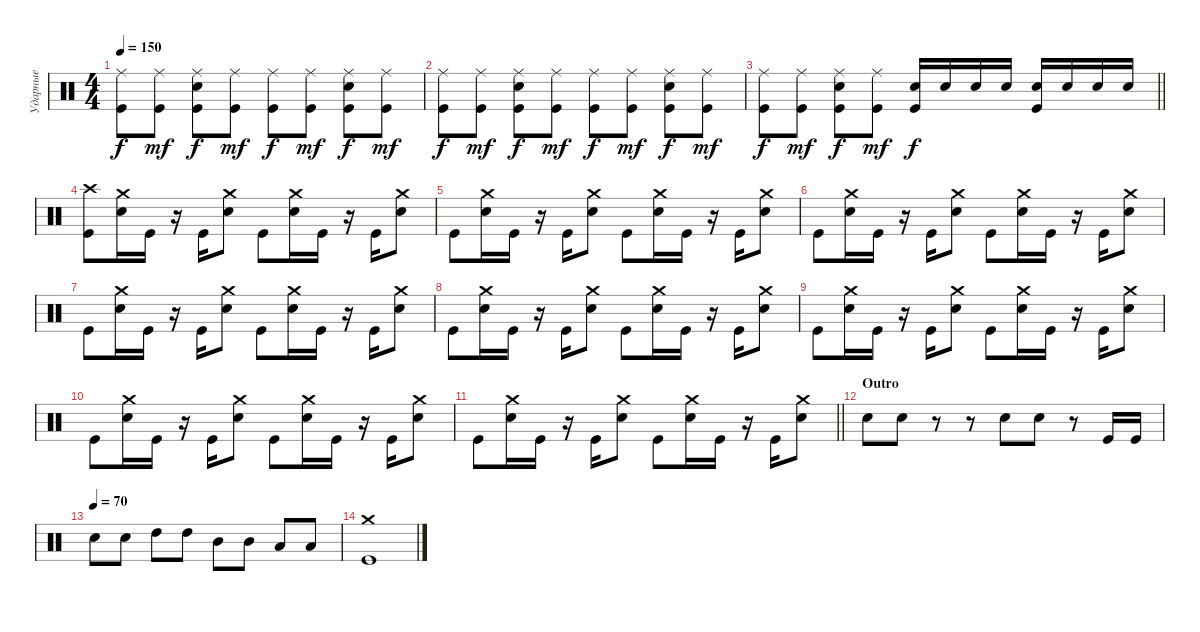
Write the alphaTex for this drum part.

\track ("Ударные" "Ударные") {instrument percussion}
\staff {score}
\articulation defaults
\ts (4 4)
\tempo 150
\clef neutral
\ks c
("Kick (hit)" "Ride (middle)").8{dy f} ("Kick (hit)" "Ride (middle)").8{dy mf} ("Electric Snare (hit)" "Kick (hit)" "Ride (middle)").8{dy f} ("Kick (hit)" "Ride (middle)").8{dy mf} ("Kick (hit)" "Ride (middle)").8{dy f} ("Kick (hit)" "Ride (middle)").8{dy mf} ("Electric Snare (hit)" "Kick (hit)" "Ride (middle)").8{dy f} ("Kick (hit)" "Ride (middle)").8{dy mf} |
("Kick (hit)" "Ride (middle)").8{dy f} ("Kick (hit)" "Ride (middle)").8{dy mf} ("Electric Snare (hit)" "Kick (hit)" "Ride (middle)").8{dy f} ("Kick (hit)" "Ride (middle)").8{dy mf} ("Kick (hit)" "Ride (middle)").8{dy f} ("Kick (hit)" "Ride (middle)").8{dy mf} ("Electric Snare (hit)" "Kick (hit)" "Ride (middle)").8{dy f} ("Kick (hit)" "Ride (middle)").8{dy mf} |
\barLineRight lightlight
("Kick (hit)" "Ride (middle)").8{dy f} ("Kick (hit)" "Ride (middle)").8{dy mf} ("Electric Snare (hit)" "Kick (hit)" "Ride (middle)").8{dy f} ("Kick (hit)" "Ride (middle)").8{dy mf} ("Electric Snare (hit)" "Kick (hit)").16{dy f} "Electric Snare (hit)".16 "Electric Snare (hit)".16 "Electric Snare (hit)".16 ("Electric Snare (hit)" "Kick (hit)").16 "Electric Snare (hit)".16 "Electric Snare (hit)".16 "Electric Snare (hit)".16 |
\section ("" " ")
("Crash high (hit)" "Kick (hit)").8 ("Crash medium (hit)" "Electric Snare (hit)").16 "Kick (hit)".16 r.16 "Kick (hit)".16 ("Crash medium (hit)" "Electric Snare (hit)").8 "Kick (hit)".8 ("Crash medium (hit)" "Electric Snare (hit)").16 "Kick (hit)".16 r.16 "Kick (hit)".16 ("Crash medium (hit)" "Electric Snare (hit)").8 |
"Kick (hit)".8 ("Crash medium (hit)" "Electric Snare (hit)").16 "Kick (hit)".16 r.16 "Kick (hit)".16 ("Crash medium (hit)" "Electric Snare (hit)").8 "Kick (hit)".8 ("Crash medium (hit)" "Electric Snare (hit)").16 "Kick (hit)".16 r.16 "Kick (hit)".16 ("Crash medium (hit)" "Electric Snare (hit)").8 |
"Kick (hit)".8 ("Crash medium (hit)" "Electric Snare (hit)").16 "Kick (hit)".16 r.16 "Kick (hit)".16 ("Crash medium (hit)" "Electric Snare (hit)").8 "Kick (hit)".8 ("Crash medium (hit)" "Electric Snare (hit)").16 "Kick (hit)".16 r.16 "Kick (hit)".16 ("Crash medium (hit)" "Electric Snare (hit)").8 |
"Kick (hit)".8 ("Crash medium (hit)" "Electric Snare (hit)").16 "Kick (hit)".16 r.16 "Kick (hit)".16 ("Crash medium (hit)" "Electric Snare (hit)").8 "Kick (hit)".8 ("Crash medium (hit)" "Electric Snare (hit)").16 "Kick (hit)".16 r.16 "Kick (hit)".16 ("Crash medium (hit)" "Electric Snare (hit)").8 |
"Kick (hit)".8 ("Crash medium (hit)" "Electric Snare (hit)").16 "Kick (hit)".16 r.16 "Kick (hit)".16 ("Crash medium (hit)" "Electric Snare (hit)").8 "Kick (hit)".8 ("Crash medium (hit)" "Electric Snare (hit)").16 "Kick (hit)".16 r.16 "Kick (hit)".16 ("Crash medium (hit)" "Electric Snare (hit)").8 |
"Kick (hit)".8 ("Crash medium (hit)" "Electric Snare (hit)").16 "Kick (hit)".16 r.16 "Kick (hit)".16 ("Crash medium (hit)" "Electric Snare (hit)").8 "Kick (hit)".8 ("Crash medium (hit)" "Electric Snare (hit)").16 "Kick (hit)".16 r.16 "Kick (hit)".16 ("Crash medium (hit)" "Electric Snare (hit)").8 |
"Kick (hit)".8 ("Crash medium (hit)" "Electric Snare (hit)").16 "Kick (hit)".16 r.16 "Kick (hit)".16 ("Crash medium (hit)" "Electric Snare (hit)").8 "Kick (hit)".8 ("Crash medium (hit)" "Electric Snare (hit)").16 "Kick (hit)".16 r.16 "Kick (hit)".16 ("Crash medium (hit)" "Electric Snare (hit)").8 |
\barLineRight lightlight "Kick (hit)".8
("Crash medium (hit)" "Electric Snare (hit)").16 "Kick (hit)".16 r.16 "Kick (hit)".16 ("Crash medium (hit)" "Electric Snare (hit)").8 "Kick (hit)".8 ("Crash medium (hit)" "Electric Snare (hit)").16 "Kick (hit)".16 r.16 "Kick (hit)".16 ("Crash medium (hit)" "Electric Snare (hit)").8 |
\section ("" "Outro")
"Electric Snare (hit)".8 "Electric Snare (hit)".8 r.8 r.8 "Electric Snare (hit)".8 "Electric Snare (hit)".8 r.8 "Kick (hit)".16 "Kick (hit)".16 |
\tempo (70)
"Electric Snare (hit)".8 "Electric Snare (hit)".8 "High Tom (hit)".8 "High Tom (hit)".8 "Mid Tom (hit)".8 "Mid Tom (hit)".8 "Low Tom (hit)".8 "Low Tom (hit)".8 |
("Crash medium (hit)" "Kick (hit)").1
